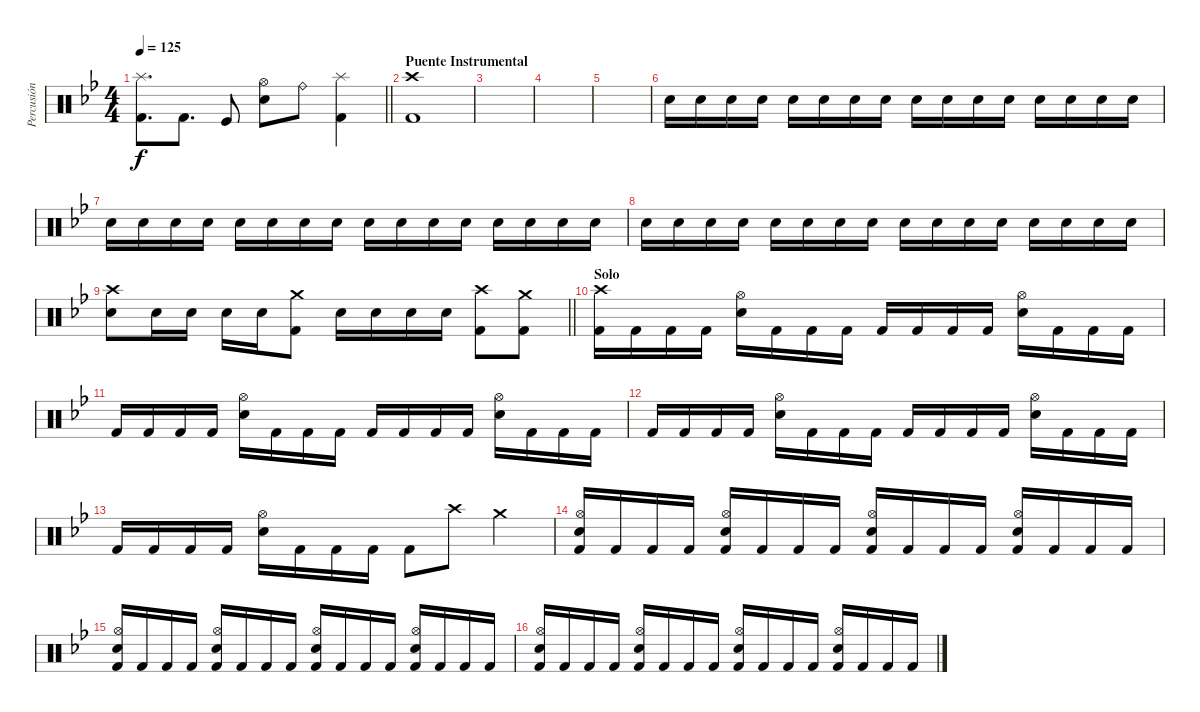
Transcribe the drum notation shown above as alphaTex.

\track ("Percusión" "Percusión") {instrument percussion}
\staff {score}
\articulation defaults
\ts (4 4)
\tempo 125
\clef neutral
\barLineRight lightlight
\ks gminor
("Splash (hit)" "Kick (hit) 2").8{d dy f} "Kick (hit) 2".8{d} "Kick (hit)".8 ("Hi-Hat (open)" "Snare (hit) 2").8 "Ride (bell)".8 ("Splash (hit)" "Kick (hit) 2").4 |
\section ("" "Puente Instrumental")
("Crash high (hit)" "Kick (hit) 2").1 |
|
|
|
"Snare (hit) 2".16{volume 3} "Snare (hit) 2".16{volume 16} "Snare (hit) 2".16 "Snare (hit) 2".16 "Snare (hit) 2".16 "Snare (hit) 2".16 "Snare (hit) 2".16 "Snare (hit) 2".16 "Snare (hit) 2".16 "Snare (hit) 2".16 "Snare (hit) 2".16 "Snare (hit) 2".16 "Snare (hit) 2".16 "Snare (hit) 2".16 "Snare (hit) 2".16 "Snare (hit) 2".16 |
"Snare (hit) 2".16 "Snare (hit) 2".16 "Snare (hit) 2".16 "Snare (hit) 2".16 "Snare (hit) 2".16 "Snare (hit) 2".16 "Snare (hit) 2".16 "Snare (hit) 2".16 "Snare (hit) 2".16 "Snare (hit) 2".16 "Snare (hit) 2".16 "Snare (hit) 2".16 "Snare (hit) 2".16 "Snare (hit) 2".16 "Snare (hit) 2".16 "Snare (hit) 2".16 |
"Snare (hit) 2".16 "Snare (hit) 2".16 "Snare (hit) 2".16 "Snare (hit) 2".16 "Snare (hit) 2".16 "Snare (hit) 2".16 "Snare (hit) 2".16 "Snare (hit) 2".16 "Snare (hit) 2".16 "Snare (hit) 2".16 "Snare (hit) 2".16 "Snare (hit) 2".16 "Snare (hit) 2".16 "Snare (hit) 2".16 "Snare (hit) 2".16 "Snare (hit) 2".16 |
\barLineRight lightlight
("Crash high (hit)" "Snare (hit) 2").8 "Snare (hit) 2".16 "Snare (hit) 2".16 "Snare (hit) 2".16 "Snare (hit) 2".16 ("Crash medium (hit)" "Kick (hit) 2").8 "Snare (hit) 2".16 "Snare (hit) 2".16 "Snare (hit) 2".16 "Snare (hit) 2".16 ("Crash high (hit)" "Kick (hit) 2").8 ("Crash medium (hit)" "Kick (hit) 2").8 |
\section ("" "Solo")
("Crash high (hit)" "Kick (hit) 2").16 "Kick (hit) 2".16 "Kick (hit) 2".16 "Kick (hit) 2".16 ("Hi-Hat (open)" "Snare (hit) 2").16 "Kick (hit) 2".16 "Kick (hit) 2".16 "Kick (hit) 2".16 "Kick (hit) 2".16 "Kick (hit) 2".16 "Kick (hit) 2".16 "Kick (hit) 2".16 ("Hi-Hat (open)" "Snare (hit) 2").16 "Kick (hit) 2".16 "Kick (hit) 2".16 "Kick (hit) 2".16 |
"Kick (hit) 2".16 "Kick (hit) 2".16 "Kick (hit) 2".16 "Kick (hit) 2".16 ("Hi-Hat (open)" "Snare (hit) 2").16 "Kick (hit) 2".16 "Kick (hit) 2".16 "Kick (hit) 2".16 "Kick (hit) 2".16 "Kick (hit) 2".16 "Kick (hit) 2".16 "Kick (hit) 2".16 ("Hi-Hat (open)" "Snare (hit) 2").16 "Kick (hit) 2".16 "Kick (hit) 2".16 "Kick (hit) 2".16 |
"Kick (hit) 2".16 "Kick (hit) 2".16 "Kick (hit) 2".16 "Kick (hit) 2".16 ("Hi-Hat (open)" "Snare (hit) 2").16 "Kick (hit) 2".16 "Kick (hit) 2".16 "Kick (hit) 2".16 "Kick (hit) 2".16 "Kick (hit) 2".16 "Kick (hit) 2".16 "Kick (hit) 2".16 ("Hi-Hat (open)" "Snare (hit) 2").16 "Kick (hit) 2".16 "Kick (hit) 2".16 "Kick (hit) 2".16 |
"Kick (hit) 2".16 "Kick (hit) 2".16 "Kick (hit) 2".16 "Kick (hit) 2".16 ("Hi-Hat (open)" "Snare (hit) 2").16 "Kick (hit) 2".16 "Kick (hit) 2".16 "Kick (hit) 2".16 "Kick (hit) 2".8 "Crash high (hit)".8 "Crash medium (hit)".4 |
("Hi-Hat (open)" "Snare (hit) 2" "Kick (hit) 2").16 "Kick (hit) 2".16 "Kick (hit) 2".16 "Kick (hit) 2".16 ("Hi-Hat (open)" "Snare (hit) 2" "Kick (hit) 2").16 "Kick (hit) 2".16 "Kick (hit) 2".16 "Kick (hit) 2".16 ("Hi-Hat (open)" "Snare (hit) 2" "Kick (hit) 2").16 "Kick (hit) 2".16 "Kick (hit) 2".16 "Kick (hit) 2".16 ("Hi-Hat (open)" "Snare (hit) 2" "Kick (hit) 2").16 "Kick (hit) 2".16 "Kick (hit) 2".16 "Kick (hit) 2".16 |
("Hi-Hat (open)" "Snare (hit) 2" "Kick (hit) 2").16 "Kick (hit) 2".16 "Kick (hit) 2".16 "Kick (hit) 2".16 ("Hi-Hat (open)" "Snare (hit) 2" "Kick (hit) 2").16 "Kick (hit) 2".16 "Kick (hit) 2".16 "Kick (hit) 2".16 ("Hi-Hat (open)" "Snare (hit) 2" "Kick (hit) 2").16 "Kick (hit) 2".16 "Kick (hit) 2".16 "Kick (hit) 2".16 ("Hi-Hat (open)" "Snare (hit) 2" "Kick (hit) 2").16 "Kick (hit) 2".16 "Kick (hit) 2".16 "Kick (hit) 2".16 |
("Hi-Hat (open)" "Snare (hit) 2" "Kick (hit) 2").16 "Kick (hit) 2".16 "Kick (hit) 2".16 "Kick (hit) 2".16 ("Hi-Hat (open)" "Snare (hit) 2" "Kick (hit) 2").16 "Kick (hit) 2".16 "Kick (hit) 2".16 "Kick (hit) 2".16 ("Hi-Hat (open)" "Snare (hit) 2" "Kick (hit) 2").16 "Kick (hit) 2".16 "Kick (hit) 2".16 "Kick (hit) 2".16 ("Hi-Hat (open)" "Snare (hit) 2" "Kick (hit) 2").16 "Kick (hit) 2".16 "Kick (hit) 2".16 "Kick (hit) 2".16
